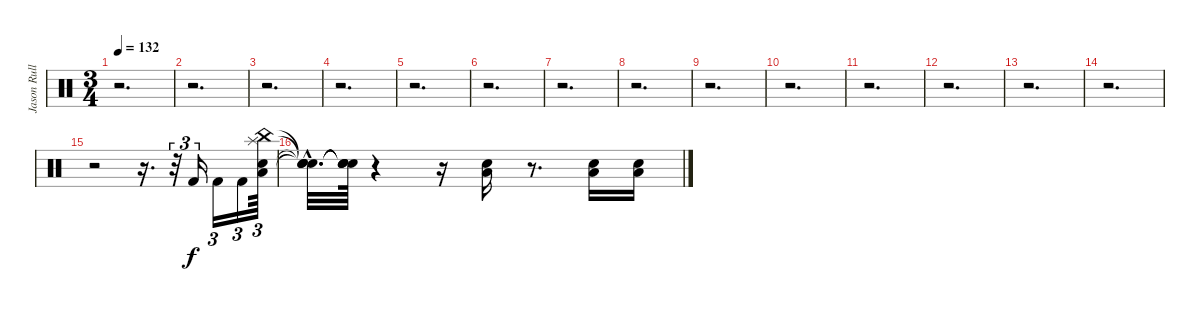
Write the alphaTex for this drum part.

\track ("Jason Rullo" "Jason Rull") {instrument percussion}
\staff {score}
\articulation defaults
\ts (3 4)
\tempo 132
\clef neutral
\ks c
r.2{d dy f} |
r.2{d} |
r.2{d} |
r.2{d} |
r.2{d} |
r.2{d} |
r.2{d} |
r.2{d} |
r.2{d} |
r.2{d} |
r.2{d} |
r.2{d} |
r.2{d} |
r.2{d} |
r.2 r.16{d} r.32{tu (3 2)} "Kick (hit) 2".16{tu (3 2) volume 15} "Kick (hit) 2".16{tu (3 2)} "Kick (hit) 2".16{tu (3 2)} ("China (hit)" "Splash (hit)" "Low Tom (hit)" "Electric Snare (hit)").64{tu (3 2)} |
("Snare (hit)"{hac t} "Snare (hit)"{hac t} "Snare (hit)"{hac t} "Snare (hit)"{hac t}).32{d} ("Snare (hit)"{t} "Snare (hit)"{t} "Snare (hit)"{t} "Snare (hit)"{t}).64 r.4 r.16 ("Electric Snare (hit)" "Low Tom (hit)").16 r.8{d} ("Low Tom (hit)" "Electric Snare (hit)").16 ("Low Tom (hit)" "Electric Snare (hit)").16
